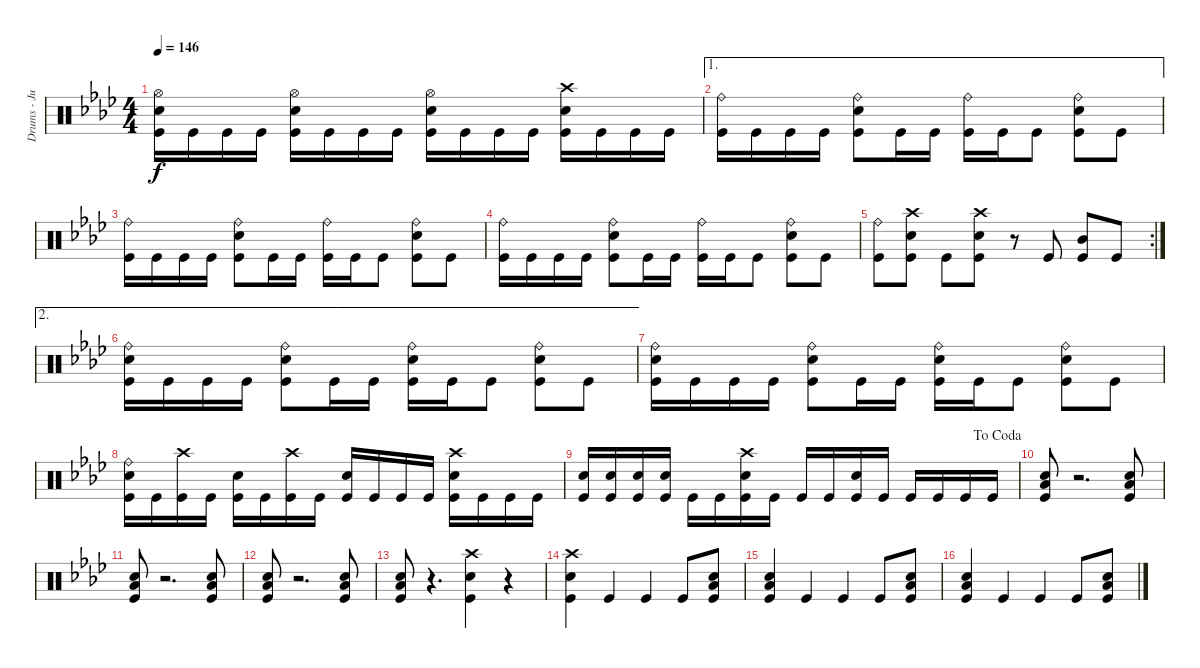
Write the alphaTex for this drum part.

\track ("Drums - Jukka" "Drums - Ju") {instrument percussion}
\staff {score}
\articulation defaults
\ts (4 4)
\tempo 146
\clef neutral
\ks fminor
("Kick (hit)" "Snare (hit) 2" "Hi-Hat (open)").16{dy f} "Kick (hit)".16 "Kick (hit)".16 "Kick (hit)".16 ("Kick (hit)" "Snare (hit) 2" "Hi-Hat (open)").16 "Kick (hit)".16 "Kick (hit)".16 "Kick (hit)".16 ("Kick (hit)" "Snare (hit) 2" "Hi-Hat (open)").16 "Kick (hit)".16 "Kick (hit)".16 "Kick (hit)".16 ("Kick (hit)" "Snare (hit) 2" "Crash high (hit)").16 "Kick (hit)".16 "Kick (hit)".16 "Kick (hit)".16 |
\ae 1
("Ride (bell)" "Kick (hit)").16 "Kick (hit)".16 "Kick (hit)".16 "Kick (hit)".16 ("Kick (hit)" "Ride (bell)" "Snare (hit) 2").8 "Kick (hit)".16 "Kick (hit)".16 ("Kick (hit)" "Ride (bell)").16 "Kick (hit)".16 "Kick (hit)".8 ("Kick (hit)" "Ride (bell)" "Snare (hit) 2").8 "Kick (hit)".8 |
("Ride (bell)" "Kick (hit)").16 "Kick (hit)".16 "Kick (hit)".16 "Kick (hit)".16 ("Kick (hit)" "Ride (bell)" "Snare (hit) 2").8 "Kick (hit)".16 "Kick (hit)".16 ("Kick (hit)" "Ride (bell)").16 "Kick (hit)".16 "Kick (hit)".8 ("Kick (hit)" "Ride (bell)" "Snare (hit) 2").8 "Kick (hit)".8 |
("Ride (bell)" "Kick (hit)").16 "Kick (hit)".16 "Kick (hit)".16 "Kick (hit)".16 ("Kick (hit)" "Ride (bell)" "Snare (hit) 2").8 "Kick (hit)".16 "Kick (hit)".16 ("Kick (hit)" "Ride (bell)").16 "Kick (hit)".16 "Kick (hit)".8 ("Kick (hit)" "Ride (bell)" "Snare (hit) 2").8 "Kick (hit)".8 |
\rc 2
("Kick (hit)" "Ride (bell)").8 ("Kick (hit)" "Crash high (hit)" "Snare (hit) 2").8 "Kick (hit)".8 ("Kick (hit)" "Crash high (hit)" "Snare (hit) 2").8 r.8 "Kick (hit)".8 ("Kick (hit)" "Mid Tom (hit)").8 "Kick (hit)".8 |
\ae 2
("Ride (bell)" "Kick (hit)" "Snare (hit) 2").16 "Kick (hit)".16 "Kick (hit)".16 "Kick (hit)".16 ("Kick (hit)" "Ride (bell)" "Snare (hit) 2").8 "Kick (hit)".16 "Kick (hit)".16 ("Kick (hit)" "Ride (bell)" "Snare (hit) 2").16 "Kick (hit)".16 "Kick (hit)".8 ("Kick (hit)" "Ride (bell)" "Snare (hit) 2").8 "Kick (hit)".8 |
("Ride (bell)" "Kick (hit)" "Snare (hit) 2").16 "Kick (hit)".16 "Kick (hit)".16 "Kick (hit)".16 ("Kick (hit)" "Ride (bell)" "Snare (hit) 2").8 "Kick (hit)".16 "Kick (hit)".16 ("Kick (hit)" "Ride (bell)" "Snare (hit) 2").16 "Kick (hit)".16 "Kick (hit)".8 ("Kick (hit)" "Ride (bell)" "Snare (hit) 2").8 "Kick (hit)".8 |
("Kick (hit)" "Ride (bell)" "Snare (hit) 2").16 "Kick (hit)".16 ("Kick (hit)" "Crash high (hit)").16 "Kick (hit)".16 ("Kick (hit)" "Snare (hit) 2").16 "Kick (hit)".16 ("Kick (hit)" "Crash high (hit)").16 "Kick (hit)".16 ("Kick (hit)" "Snare (hit) 2").16 "Kick (hit)".16 "Kick (hit)".16 "Kick (hit)".16 ("Kick (hit)" "Crash high (hit)" "Snare (hit) 2").16 "Kick (hit)".16 "Kick (hit)".16 "Kick (hit)".16 |
\jump dacoda
("Kick (hit)" "Snare (hit) 2").16 ("Kick (hit)" "Snare (hit) 2").16 ("Kick (hit)" "Snare (hit) 2").16 ("Kick (hit)" "Snare (hit) 2").16 "Kick (hit)".16 "Kick (hit)".16 ("Kick (hit)" "Snare (hit) 2" "Crash high (hit)").16 "Kick (hit)".16 "Kick (hit)".16 "Kick (hit)".16 ("Kick (hit)" "Snare (hit) 2").16 "Kick (hit)".16 "Kick (hit)".16 "Kick (hit)".16 "Kick (hit)".16 "Kick (hit)".16 |
("Snare (hit) 2" "Low Floor Tom (hit)" "Kick (hit)").8 r.2{d} ("Kick (hit)" "Low Floor Tom (hit)" "Snare (hit) 2").8 |
("Snare (hit) 2" "Low Floor Tom (hit)" "Kick (hit)").8 r.2{d} ("Kick (hit)" "Low Floor Tom (hit)" "Snare (hit) 2").8 |
("Snare (hit) 2" "Low Floor Tom (hit)" "Kick (hit)").8 r.2{d} ("Kick (hit)" "Low Floor Tom (hit)" "Snare (hit) 2").8 |
("Snare (hit) 2" "Low Floor Tom (hit)" "Kick (hit)").8 r.4{d} ("Kick (hit)" "Snare (hit) 2" "Crash high (hit)").4 r.4 |
("Kick (hit)" "Snare (hit) 2" "Crash high (hit)").4 "Kick (hit)".4 "Kick (hit)".4 "Kick (hit)".8 ("Snare (hit) 2" "Kick (hit)" "Low Floor Tom (hit)").8 |
("Kick (hit)" "Snare (hit) 2" "Low Floor Tom (hit)").4 "Kick (hit)".4 "Kick (hit)".4 "Kick (hit)".8 ("Kick (hit)" "Snare (hit) 2" "Low Floor Tom (hit)").8 |
("Kick (hit)" "Snare (hit) 2" "Low Floor Tom (hit)").4 "Kick (hit)".4 "Kick (hit)".4 "Kick (hit)".8 ("Kick (hit)" "Snare (hit) 2" "Low Floor Tom (hit)").8
